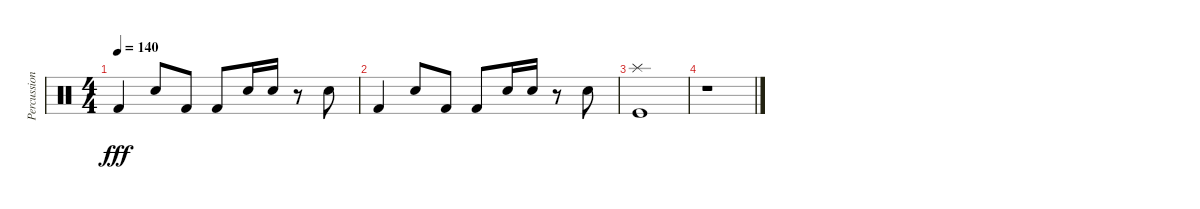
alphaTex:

\track ("Percussion" "Percussion") {instrument percussion}
\staff {score}
\articulation defaults
\ts (4 4)
\tempo 140
\clef neutral
\ks c "Kick (hit) 2".4{dy fff} "Snare (hit) 2".8 "Kick (hit) 2".8 "Kick (hit) 2".8 "Snare (hit) 2".16 "Snare (hit) 2".16
r.8 "Snare (hit) 2".8 |
"Kick (hit) 2".4 "Snare (hit) 2".8 "Kick (hit) 2".8 "Kick (hit) 2".8 "Snare (hit) 2".16 "Snare (hit) 2".16 r.8 "Snare (hit) 2".8 |
("Splash (hit)" "Kick (hit)").1 |
r.1
